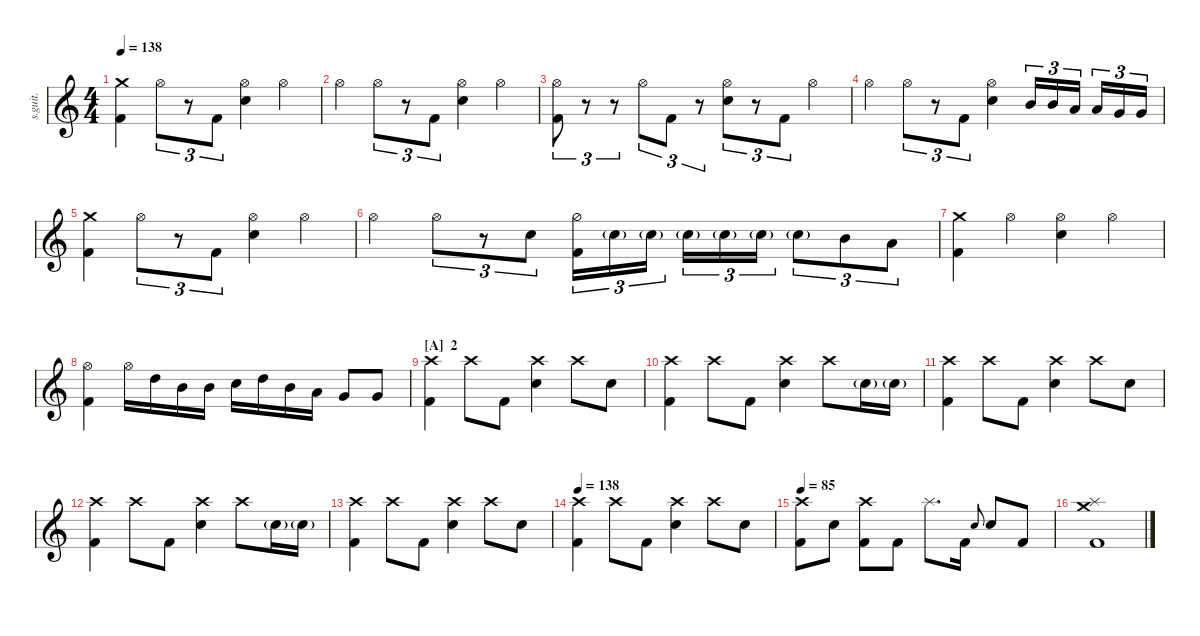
\defaultSystemsLayout 4
\hideDynamics
\bracketExtendMode nobrackets
\track ("Nathan Camarena" "s.guit.") {instrument percussion}
\staff {score}
\articulation defaults
\ts (4 4)
\tempo 138
\clef g2
\ks c
("Kick (hit) 2" "Crash medium (hit)").4{lyrics (0 "") lyrics (1 "") lyrics (2 "") lyrics (3 "") lyrics (4 "") dy f} "Hi-Hat (open)".8{tu (3 2) lyrics (0 "") lyrics (1 "") lyrics (2 "") lyrics (3 "") lyrics (4 "")} r.8{tu (3 2)} "Kick (hit) 2".8{tu (3 2) lyrics (0 "") lyrics (1 "") lyrics (2 "") lyrics (3 "") lyrics (4 "")} ("Snare (hit) 2" "Hi-Hat (open)").4{lyrics (0 "") lyrics (1 "") lyrics (2 "") lyrics (3 "") lyrics (4 "")} "Hi-Hat (open)".4{lyrics (0 "") lyrics (1 "") lyrics (2 "") lyrics (3 "") lyrics (4 "")} |
"Hi-Hat (open)".4{lyrics (0 "") lyrics (1 "") lyrics (2 "") lyrics (3 "") lyrics (4 "")} "Hi-Hat (open)".8{tu (3 2) lyrics (0 "") lyrics (1 "") lyrics (2 "") lyrics (3 "") lyrics (4 "")} r.8{tu (3 2)} "Kick (hit) 2".8{tu (3 2) lyrics (0 "") lyrics (1 "") lyrics (2 "") lyrics (3 "") lyrics (4 "")} ("Snare (hit) 2" "Hi-Hat (open)").4{lyrics (0 "") lyrics (1 "") lyrics (2 "") lyrics (3 "") lyrics (4 "")} "Hi-Hat (open)".4{lyrics (0 "") lyrics (1 "") lyrics (2 "") lyrics (3 "") lyrics (4 "")} |
("Kick (hit) 2" "Hi-Hat (open)").8{tu (3 2) lyrics (0 "") lyrics (1 "") lyrics (2 "") lyrics (3 "") lyrics (4 "")} r.8{tu (3 2)} r.8{tu (3 2)} "Hi-Hat (open)".8{tu (3 2) lyrics (0 "") lyrics (1 "") lyrics (2 "") lyrics (3 "") lyrics (4 "")} "Kick (hit) 2".8{tu (3 2) lyrics (0 "") lyrics (1 "") lyrics (2 "") lyrics (3 "") lyrics (4 "")} r.8{tu (3 2)} ("Snare (hit) 2" "Hi-Hat (open)").8{tu (3 2) lyrics (0 "") lyrics (1 "") lyrics (2 "") lyrics (3 "") lyrics (4 "")} r.8{tu (3 2)} "Kick (hit) 2".8{tu (3 2) lyrics (0 "") lyrics (1 "") lyrics (2 "") lyrics (3 "") lyrics (4 "")} "Hi-Hat (open)".4{lyrics (0 "") lyrics (1 "") lyrics (2 "") lyrics (3 "") lyrics (4 "")} |
"Hi-Hat (open)".4{lyrics (0 "") lyrics (1 "") lyrics (2 "") lyrics (3 "") lyrics (4 "")} "Hi-Hat (open)".8{tu (3 2) lyrics (0 "") lyrics (1 "") lyrics (2 "") lyrics (3 "") lyrics (4 "")} r.8{tu (3 2)} "Kick (hit) 2".8{tu (3 2) lyrics (0 "") lyrics (1 "") lyrics (2 "") lyrics (3 "") lyrics (4 "")} ("Snare (hit) 2" "Hi-Hat (open)").4{lyrics (0 "") lyrics (1 "") lyrics (2 "") lyrics (3 "") lyrics (4 "")} "Mid Tom (hit)".16{tu (3 2) lyrics (0 "") lyrics (1 "") lyrics (2 "") lyrics (3 "") lyrics (4 "") dy fff} "Mid Tom (hit)".16{tu (3 2) lyrics (0 "") lyrics (1 "") lyrics (2 "") lyrics (3 "") lyrics (4 "")} "Low Tom (hit)".16{tu (3 2) lyrics (0 "") lyrics (1 "") lyrics (2 "") lyrics (3 "") lyrics (4 "")} "Low Tom (hit)".16{tu (3 2) lyrics (0 "") lyrics (1 "") lyrics (2 "") lyrics (3 "") lyrics (4 "")} "Very Low Tom (hit)".16{tu (3 2) lyrics (0 "") lyrics (1 "") lyrics (2 "") lyrics (3 "") lyrics (4 "")} "Very Low Tom (hit)".16{tu (3 2) lyrics (0 "") lyrics (1 "") lyrics (2 "") lyrics (3 "") lyrics (4 "")} |
("Kick (hit) 2" "Crash medium (hit)").4{lyrics (0 "") lyrics (1 "") lyrics (2 "") lyrics (3 "") lyrics (4 "") dy f} "Hi-Hat (open)".8{tu (3 2) lyrics (0 "") lyrics (1 "") lyrics (2 "") lyrics (3 "") lyrics (4 "")} r.8{tu (3 2)} "Kick (hit) 2".8{tu (3 2) lyrics (0 "") lyrics (1 "") lyrics (2 "") lyrics (3 "") lyrics (4 "")} ("Snare (hit) 2" "Hi-Hat (open)").4{lyrics (0 "") lyrics (1 "") lyrics (2 "") lyrics (3 "") lyrics (4 "")} "Hi-Hat (open)".4{lyrics (0 "") lyrics (1 "") lyrics (2 "") lyrics (3 "") lyrics (4 "")} |
"Hi-Hat (open)".4{lyrics (0 "") lyrics (1 "") lyrics (2 "") lyrics (3 "") lyrics (4 "")} "Hi-Hat (open)".8{tu (3 2) lyrics (0 "") lyrics (1 "") lyrics (2 "") lyrics (3 "") lyrics (4 "")} r.8{tu (3 2)} "Snare (hit) 2".8{tu (3 2) lyrics (0 "") lyrics (1 "") lyrics (2 "") lyrics (3 "") lyrics (4 "")} ("Hi-Hat (half)" "Kick (hit) 2").16{tu (3 2) lyrics (0 "") lyrics (1 "") lyrics (2 "") lyrics (3 "") lyrics (4 "")} "Snare (hit) 2"{g}.16{tu (3 2) lyrics (0 "") lyrics (1 "") lyrics (2 "") lyrics (3 "") lyrics (4 "")} "Snare (hit) 2"{g}.16{tu (3 2) lyrics (0 "") lyrics (1 "") lyrics (2 "") lyrics (3 "") lyrics (4 "")} "Snare (hit) 2"{g}.16{tu (3 2) lyrics (0 "") lyrics (1 "") lyrics (2 "") lyrics (3 "") lyrics (4 "")} "Snare (hit) 2"{g}.16{tu (3 2) lyrics (0 "") lyrics (1 "") lyrics (2 "") lyrics (3 "") lyrics (4 "")} "Snare (hit) 2"{g}.16{tu (3 2) lyrics (0 "") lyrics (1 "") lyrics (2 "") lyrics (3 "") lyrics (4 "")} "Snare (hit) 2"{g}.8{tu (3 2) lyrics (0 "") lyrics (1 "") lyrics (2 "") lyrics (3 "") lyrics (4 "")} "Mid Tom (hit)".8{tu (3 2) lyrics (0 "") lyrics (1 "") lyrics (2 "") lyrics (3 "") lyrics (4 "") dy fff} "Low Tom (hit)".8{tu (3 2) lyrics (0 "") lyrics (1 "") lyrics (2 "") lyrics (3 "") lyrics (4 "")} |
("Kick (hit) 2" "Crash medium (hit)").4{lyrics (0 "") lyrics (1 "") lyrics (2 "") lyrics (3 "") lyrics (4 "") dy f} "Hi-Hat (open)".4{lyrics (0 "") lyrics (1 "") lyrics (2 "") lyrics (3 "") lyrics (4 "")} ("Snare (hit) 2" "Hi-Hat (open)").4{lyrics (0 "") lyrics (1 "") lyrics (2 "") lyrics (3 "") lyrics (4 "")} "Hi-Hat (open)".4{lyrics (0 "") lyrics (1 "") lyrics (2 "") lyrics (3 "") lyrics (4 "")} |
("Kick (hit) 2" "Hi-Hat (open)").4{lyrics (0 "") lyrics (1 "") lyrics (2 "") lyrics (3 "") lyrics (4 "")} "Hi-Hat (open)".16{lyrics (0 "") lyrics (1 "") lyrics (2 "") lyrics (3 "") lyrics (4 "")} "High Tom (hit)".16{lyrics (0 "") lyrics (1 "") lyrics (2 "") lyrics (3 "") lyrics (4 "") dy fff} "Mid Tom (hit)".16{lyrics (0 "") lyrics (1 "") lyrics (2 "") lyrics (3 "") lyrics (4 "")} "Mid Tom (hit)".16{lyrics (0 "") lyrics (1 "") lyrics (2 "") lyrics (3 "") lyrics (4 "")} "Snare (hit) 2".16{lyrics (0 "") lyrics (1 "") lyrics (2 "") lyrics (3 "") lyrics (4 "") dy f} "High Tom (hit)".16{lyrics (0 "") lyrics (1 "") lyrics (2 "") lyrics (3 "") lyrics (4 "") dy fff} "Mid Tom (hit)".16{lyrics (0 "") lyrics (1 "") lyrics (2 "") lyrics (3 "") lyrics (4 "")} "Low Tom (hit)".16{lyrics (0 "") lyrics (1 "") lyrics (2 "") lyrics (3 "") lyrics (4 "")} "Very Low Tom (hit)".8{lyrics (0 "") lyrics (1 "") lyrics (2 "") lyrics (3 "") lyrics (4 "")} "Very Low Tom (hit)".8{lyrics (0 "") lyrics (1 "") lyrics (2 "") lyrics (3 "") lyrics (4 "")} |
\section ("A" " 2")
("Kick (hit) 2" "Crash high (hit)").4{lyrics (0 "") lyrics (1 "") lyrics (2 "") lyrics (3 "") lyrics (4 "") dy f} "Crash high (hit)".8{lyrics (0 "") lyrics (1 "") lyrics (2 "") lyrics (3 "") lyrics (4 "")} "Kick (hit) 2".8{lyrics (0 "") lyrics (1 "") lyrics (2 "") lyrics (3 "") lyrics (4 "")} ("Snare (hit) 2" "Crash high (hit)").4{lyrics (0 "") lyrics (1 "") lyrics (2 "") lyrics (3 "") lyrics (4 "")} "Crash high (hit)".8{lyrics (0 "") lyrics (1 "") lyrics (2 "") lyrics (3 "") lyrics (4 "")} "Snare (hit) 2".8{lyrics (0 "") lyrics (1 "") lyrics (2 "") lyrics (3 "") lyrics (4 "")} |
("Kick (hit) 2" "Crash high (hit)").4{lyrics (0 "") lyrics (1 "") lyrics (2 "") lyrics (3 "") lyrics (4 "")} "Crash high (hit)".8{lyrics (0 "") lyrics (1 "") lyrics (2 "") lyrics (3 "") lyrics (4 "")} "Kick (hit) 2".8{lyrics (0 "") lyrics (1 "") lyrics (2 "") lyrics (3 "") lyrics (4 "")} ("Snare (hit) 2" "Crash high (hit)").4{lyrics (0 "") lyrics (1 "") lyrics (2 "") lyrics (3 "") lyrics (4 "")} "Crash high (hit)".8{lyrics (0 "") lyrics (1 "") lyrics (2 "") lyrics (3 "") lyrics (4 "")} "Snare (hit) 2"{g}.16{lyrics (0 "") lyrics (1 "") lyrics (2 "") lyrics (3 "") lyrics (4 "")} "Snare (hit) 2"{g}.16{lyrics (0 "") lyrics (1 "") lyrics (2 "") lyrics (3 "") lyrics (4 "")} |
("Kick (hit) 2" "Crash high (hit)").4{lyrics (0 "") lyrics (1 "") lyrics (2 "") lyrics (3 "") lyrics (4 "")} "Crash high (hit)".8{lyrics (0 "") lyrics (1 "") lyrics (2 "") lyrics (3 "") lyrics (4 "")} "Kick (hit) 2".8{lyrics (0 "") lyrics (1 "") lyrics (2 "") lyrics (3 "") lyrics (4 "")} ("Snare (hit) 2" "Crash high (hit)").4{lyrics (0 "") lyrics (1 "") lyrics (2 "") lyrics (3 "") lyrics (4 "")} "Crash high (hit)".8{lyrics (0 "") lyrics (1 "") lyrics (2 "") lyrics (3 "") lyrics (4 "")} "Snare (hit) 2".8{lyrics (0 "") lyrics (1 "") lyrics (2 "") lyrics (3 "") lyrics (4 "")} |
("Kick (hit) 2" "Crash high (hit)").4{lyrics (0 "") lyrics (1 "") lyrics (2 "") lyrics (3 "") lyrics (4 "")} "Crash high (hit)".8{lyrics (0 "") lyrics (1 "") lyrics (2 "") lyrics (3 "") lyrics (4 "")} "Kick (hit) 2".8{lyrics (0 "") lyrics (1 "") lyrics (2 "") lyrics (3 "") lyrics (4 "")} ("Snare (hit) 2" "Crash high (hit)").4{lyrics (0 "") lyrics (1 "") lyrics (2 "") lyrics (3 "") lyrics (4 "")} "Crash high (hit)".8{lyrics (0 "") lyrics (1 "") lyrics (2 "") lyrics (3 "") lyrics (4 "")} "Snare (hit) 2"{g}.16{lyrics (0 "") lyrics (1 "") lyrics (2 "") lyrics (3 "") lyrics (4 "")} "Snare (hit) 2"{g}.16{lyrics (0 "") lyrics (1 "") lyrics (2 "") lyrics (3 "") lyrics (4 "")} |
("Kick (hit) 2" "Crash high (hit)").4{lyrics (0 "") lyrics (1 "") lyrics (2 "") lyrics (3 "") lyrics (4 "")} "Crash high (hit)".8{lyrics (0 "") lyrics (1 "") lyrics (2 "") lyrics (3 "") lyrics (4 "")} "Kick (hit) 2".8{lyrics (0 "") lyrics (1 "") lyrics (2 "") lyrics (3 "") lyrics (4 "")} ("Snare (hit) 2" "Crash high (hit)").4{lyrics (0 "") lyrics (1 "") lyrics (2 "") lyrics (3 "") lyrics (4 "")} "Crash high (hit)".8{lyrics (0 "") lyrics (1 "") lyrics (2 "") lyrics (3 "") lyrics (4 "")} "Snare (hit) 2".8{lyrics (0 "") lyrics (1 "") lyrics (2 "") lyrics (3 "") lyrics (4 "")} |
\tempo 138
("Kick (hit) 2" "Crash high (hit)").4{lyrics (0 "") lyrics (1 "") lyrics (2 "") lyrics (3 "") lyrics (4 "")} "Crash high (hit)".8{lyrics (0 "") lyrics (1 "") lyrics (2 "") lyrics (3 "") lyrics (4 "")} "Kick (hit) 2".8{lyrics (0 "") lyrics (1 "") lyrics (2 "") lyrics (3 "") lyrics (4 "")} ("Snare (hit) 2" "Crash high (hit)").4{lyrics (0 "") lyrics (1 "") lyrics (2 "") lyrics (3 "") lyrics (4 "")} "Crash high (hit)".8{lyrics (0 "") lyrics (1 "") lyrics (2 "") lyrics (3 "") lyrics (4 "")} "Snare (hit) 2".8{lyrics (0 "") lyrics (1 "") lyrics (2 "") lyrics (3 "") lyrics (4 "")} |
\tempo 85
("Kick (hit) 2" "Crash high (hit)").8{lyrics (0 "") lyrics (1 "") lyrics (2 "") lyrics (3 "") lyrics (4 "")} "Snare (hit) 2".8{lyrics (0 "") lyrics (1 "") lyrics (2 "") lyrics (3 "") lyrics (4 "")} ("Kick (hit) 2" "Crash high (hit)").8{lyrics (0 "") lyrics (1 "") lyrics (2 "") lyrics (3 "") lyrics (4 "")} "Kick (hit) 2".8{lyrics (0 "") lyrics (1 "") lyrics (2 "") lyrics (3 "") lyrics (4 "")} "Splash (hit)".8{d lyrics (0 "") lyrics (1 "") lyrics (2 "") lyrics (3 "") lyrics (4 "")} "Kick (hit) 2".16{lyrics (0 "") lyrics (1 "") lyrics (2 "") lyrics (3 "") lyrics (4 "")} "Snare (hit) 2".8{lyrics (0 "") lyrics (1 "") lyrics (2 "") lyrics (3 "") lyrics (4 "") gr onbeat} "Snare (hit) 2".8{lyrics (0 "") lyrics (1 "") lyrics (2 "") lyrics (3 "") lyrics (4 "")} "Kick (hit) 2".8{lyrics (0 "") lyrics (1 "") lyrics (2 "") lyrics (3 "") lyrics (4 "")} |
("Kick (hit) 2" "Splash (hit)" "Crash medium (hit)").1{lyrics (0 "") lyrics (1 "") lyrics (2 "") lyrics (3 "") lyrics (4 "")}
